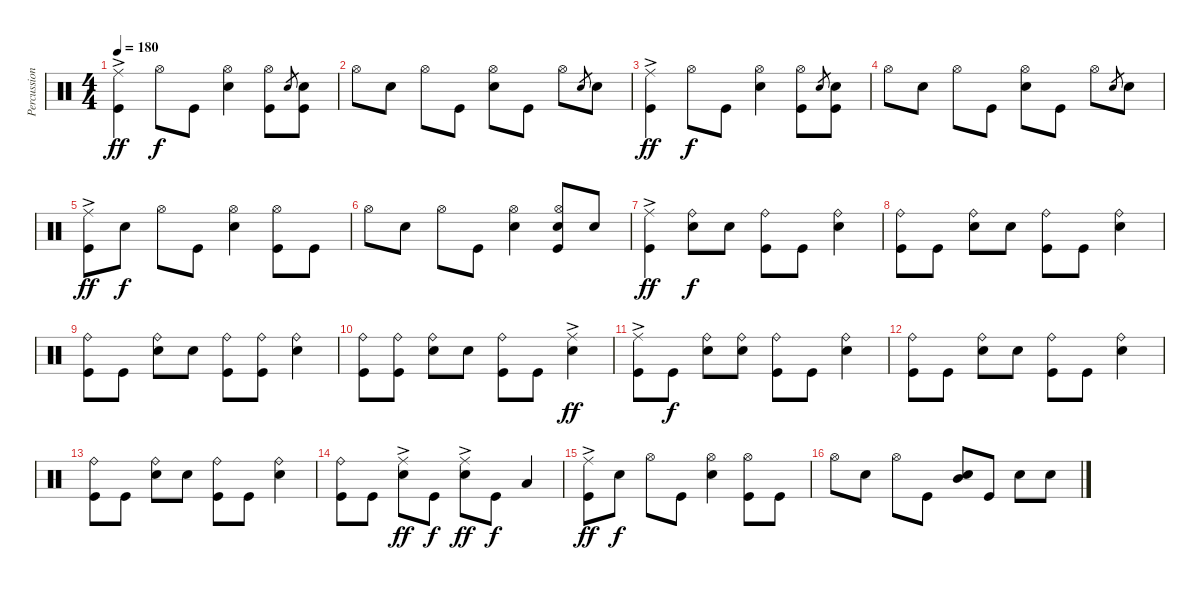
\track ("Percussion" "Percussion") {instrument percussion}
\staff {score}
\articulation defaults
\ts (4 4)
\tempo 180
\clef neutral
\ks c
("Ride (middle)"{ac} "Kick (hit)").4{dy ff} "Hi-Hat (open)".8{dy f} "Kick (hit)".8 ("Hi-Hat (open)" "Snare (hit) 2").4 ("Hi-Hat (open)" "Kick (hit)").8 "Snare (hit) 2".8{gr} ("Snare (hit) 2" "Kick (hit)").8 |
"Hi-Hat (open)".8 "Snare (hit) 2".8 "Hi-Hat (open)".8 "Kick (hit)".8 ("Hi-Hat (open)" "Snare (hit) 2").8 "Kick (hit)".8 "Hi-Hat (open)".8 "Snare (hit) 2".8{gr} "Snare (hit) 2".8 |
("Ride (middle)"{ac} "Kick (hit)").4{dy ff} "Hi-Hat (open)".8{dy f} "Kick (hit)".8 ("Hi-Hat (open)" "Snare (hit) 2").4 ("Hi-Hat (open)" "Kick (hit)").8 "Snare (hit) 2".8{gr} ("Snare (hit) 2" "Kick (hit)").8 |
"Hi-Hat (open)".8 "Snare (hit) 2".8 "Hi-Hat (open)".8 "Kick (hit)".8 ("Hi-Hat (open)" "Snare (hit) 2").8 "Kick (hit)".8 "Hi-Hat (open)".8 "Snare (hit) 2".8{gr} "Snare (hit) 2".8 |
("Ride (middle)"{ac} "Kick (hit)").8{dy ff} "Snare (hit) 2".8{dy f} "Hi-Hat (open)".8 "Kick (hit)".8 ("Hi-Hat (open)" "Snare (hit) 2").4 ("Hi-Hat (open)" "Kick (hit)").8 "Kick (hit)".8 |
"Hi-Hat (open)".8 "Snare (hit) 2".8 "Hi-Hat (open)".8 "Kick (hit)".8 ("Hi-Hat (open)" "Snare (hit) 2").4 ("Hi-Hat (open)" "Snare (hit) 2" "Kick (hit)").8 "Snare (hit) 2".8 |
("Ride (middle)"{ac} "Kick (hit)").4{dy ff} ("Ride (bell)" "Snare (hit) 2").8{dy f} "Snare (hit) 2".8 ("Ride (bell)" "Kick (hit)").8 "Kick (hit)".8 ("Ride (bell)" "Snare (hit) 2").4 |
("Ride (bell)" "Kick (hit)").8 "Kick (hit)".8 ("Ride (bell)" "Snare (hit) 2").8 "Snare (hit) 2".8 ("Ride (bell)" "Kick (hit)").8 "Kick (hit)".8 ("Ride (bell)" "Snare (hit) 2").4 |
("Ride (bell)" "Kick (hit)").8 "Kick (hit)".8 ("Ride (bell)" "Snare (hit) 2").8 "Snare (hit) 2".8 ("Ride (bell)" "Kick (hit)").8 ("Ride (bell)" "Kick (hit)").8 ("Ride (bell)" "Snare (hit) 2").4 |
("Ride (bell)" "Kick (hit)").8 ("Ride (bell)" "Kick (hit)").8 ("Ride (bell)" "Snare (hit) 2").8 "Snare (hit) 2".8 ("Ride (bell)" "Kick (hit)").8 "Kick (hit)".8 ("Ride (middle)"{ac} "Snare (hit) 2").4{dy ff} |
("Ride (middle)"{ac} "Kick (hit)").8 "Kick (hit)".8{dy f} ("Ride (bell)" "Snare (hit) 2").8 ("Ride (bell)" "Snare (hit) 2").8 ("Ride (bell)" "Kick (hit)").8 "Kick (hit)".8 ("Ride (bell)" "Snare (hit) 2").4 |
("Ride (bell)" "Kick (hit)").8 "Kick (hit)".8 ("Ride (bell)" "Snare (hit) 2").8 "Snare (hit) 2".8 ("Ride (bell)" "Kick (hit)").8 "Kick (hit)".8 ("Ride (bell)" "Snare (hit) 2").4 |
("Ride (bell)" "Kick (hit)").8 "Kick (hit)".8 ("Ride (bell)" "Snare (hit) 2").8 "Snare (hit) 2".8 ("Ride (bell)" "Kick (hit)").8 "Kick (hit)".8 ("Ride (bell)" "Snare (hit) 2").4 |
("Ride (bell)" "Kick (hit)").8 "Kick (hit)".8 ("Ride (middle)"{ac} "Snare (hit) 2").8{dy ff} "Kick (hit)".8{dy f} ("Ride (middle)"{ac} "Snare (hit) 2").8{dy ff} "Kick (hit)".8{dy f} "Low Tom (hit)".4 |
("Ride (middle)"{ac} "Kick (hit)").8{dy ff} "Snare (hit) 2".8{dy f} "Hi-Hat (open)".8 "Kick (hit)".8 ("Hi-Hat (open)" "Snare (hit) 2").4 ("Hi-Hat (open)" "Kick (hit)").8 "Kick (hit)".8 |
"Hi-Hat (open)".8 "Snare (hit) 2".8 "Hi-Hat (open)".8 "Kick (hit)".8 ("Mid Tom (hit)" "Snare (hit) 2").8 "Kick (hit)".8 "Snare (hit) 2".8 "Snare (hit) 2".8
